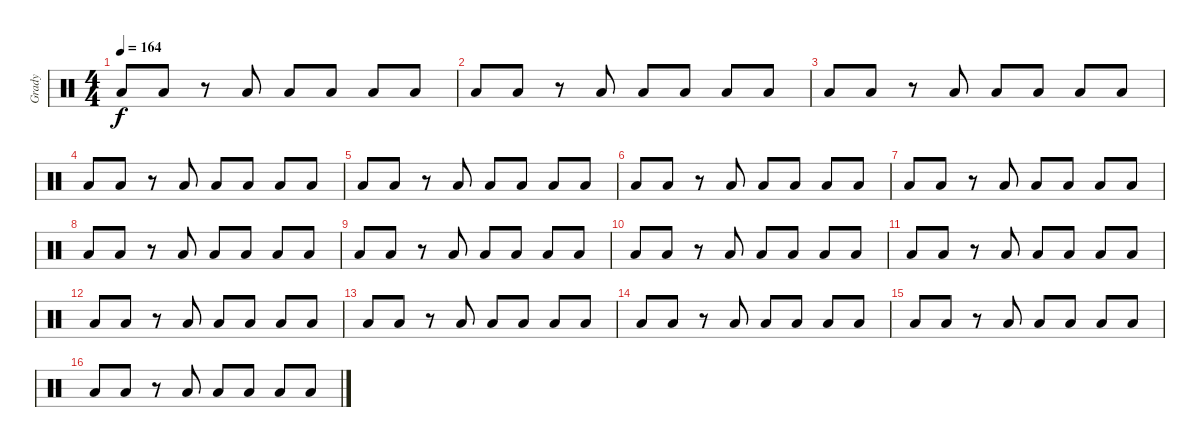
\track ("Grady" "Grady") {instrument percussion}
\staff {score}
\articulation defaults
\ts (4 4)
\tempo 164
\clef neutral
\ks c "Low Tom (hit)".8{dy f} "Low Tom (hit)".8
r.8 "Low Tom (hit)".8 "Low Tom (hit)".8 "Low Tom (hit)".8 "Low Tom (hit)".8 "Low Tom (hit)".8 |
"Low Tom (hit)".8 "Low Tom (hit)".8 r.8 "Low Tom (hit)".8 "Low Tom (hit)".8 "Low Tom (hit)".8 "Low Tom (hit)".8 "Low Tom (hit)".8 |
"Low Tom (hit)".8 "Low Tom (hit)".8 r.8 "Low Tom (hit)".8 "Low Tom (hit)".8 "Low Tom (hit)".8 "Low Tom (hit)".8 "Low Tom (hit)".8 |
"Low Tom (hit)".8 "Low Tom (hit)".8 r.8 "Low Tom (hit)".8 "Low Tom (hit)".8 "Low Tom (hit)".8 "Low Tom (hit)".8 "Low Tom (hit)".8 |
"Low Tom (hit)".8 "Low Tom (hit)".8 r.8 "Low Tom (hit)".8 "Low Tom (hit)".8 "Low Tom (hit)".8 "Low Tom (hit)".8 "Low Tom (hit)".8 |
"Low Tom (hit)".8 "Low Tom (hit)".8 r.8 "Low Tom (hit)".8 "Low Tom (hit)".8 "Low Tom (hit)".8 "Low Tom (hit)".8 "Low Tom (hit)".8 |
"Low Tom (hit)".8 "Low Tom (hit)".8 r.8 "Low Tom (hit)".8 "Low Tom (hit)".8 "Low Tom (hit)".8 "Low Tom (hit)".8 "Low Tom (hit)".8 |
"Low Tom (hit)".8 "Low Tom (hit)".8 r.8 "Low Tom (hit)".8 "Low Tom (hit)".8 "Low Tom (hit)".8 "Low Tom (hit)".8 "Low Tom (hit)".8 |
"Low Tom (hit)".8 "Low Tom (hit)".8 r.8 "Low Tom (hit)".8 "Low Tom (hit)".8 "Low Tom (hit)".8 "Low Tom (hit)".8 "Low Tom (hit)".8 |
"Low Tom (hit)".8 "Low Tom (hit)".8 r.8 "Low Tom (hit)".8 "Low Tom (hit)".8 "Low Tom (hit)".8 "Low Tom (hit)".8 "Low Tom (hit)".8 |
"Low Tom (hit)".8 "Low Tom (hit)".8 r.8 "Low Tom (hit)".8 "Low Tom (hit)".8 "Low Tom (hit)".8 "Low Tom (hit)".8 "Low Tom (hit)".8 |
"Low Tom (hit)".8 "Low Tom (hit)".8 r.8 "Low Tom (hit)".8 "Low Tom (hit)".8 "Low Tom (hit)".8 "Low Tom (hit)".8 "Low Tom (hit)".8 |
"Low Tom (hit)".8 "Low Tom (hit)".8 r.8 "Low Tom (hit)".8 "Low Tom (hit)".8 "Low Tom (hit)".8 "Low Tom (hit)".8 "Low Tom (hit)".8 |
"Low Tom (hit)".8 "Low Tom (hit)".8 r.8 "Low Tom (hit)".8 "Low Tom (hit)".8 "Low Tom (hit)".8 "Low Tom (hit)".8 "Low Tom (hit)".8 |
"Low Tom (hit)".8 "Low Tom (hit)".8 r.8 "Low Tom (hit)".8 "Low Tom (hit)".8 "Low Tom (hit)".8 "Low Tom (hit)".8 "Low Tom (hit)".8 |
"Low Tom (hit)".8 "Low Tom (hit)".8 r.8 "Low Tom (hit)".8 "Low Tom (hit)".8 "Low Tom (hit)".8 "Low Tom (hit)".8 "Low Tom (hit)".8
